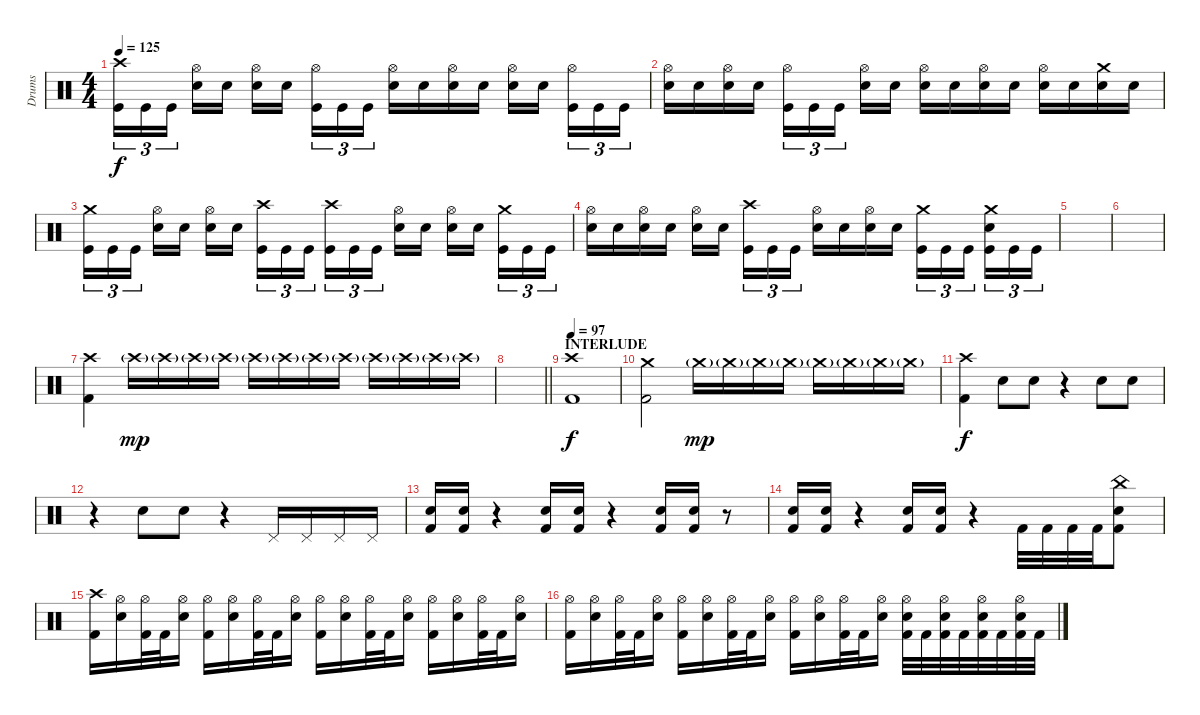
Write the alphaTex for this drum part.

\track ("Drums" "Drums") {instrument percussion}
\staff
\articulation defaults
\ts (4 4)
\tempo 125
\clef neutral
\ks c
("Crash high (hit)" "Kick (hit)").16{tu (3 2) dy f} "Kick (hit)".16{tu (3 2)} "Kick (hit)".16{tu (3 2) beam splitsecondary} ("Hi-Hat (open)" "Electric Snare (hit)").16 "Electric Snare (hit)".16 ("Hi-Hat (open)" "Electric Snare (hit)").16 "Electric Snare (hit)".16{beam splitsecondary} ("Hi-Hat (open)" "Kick (hit)").16{tu (3 2)} "Kick (hit)".16{tu (3 2)} "Kick (hit)".16{tu (3 2)} ("Hi-Hat (open)" "Electric Snare (hit)").16 "Electric Snare (hit)".16 ("Hi-Hat (open)" "Electric Snare (hit)").16 "Electric Snare (hit)".16 ("Hi-Hat (open)" "Electric Snare (hit)").16 "Electric Snare (hit)".16{beam splitsecondary} ("Hi-Hat (open)" "Kick (hit)").16{tu (3 2)} "Kick (hit)".16{tu (3 2)} "Kick (hit)".16{tu (3 2)} |
("Hi-Hat (open)" "Electric Snare (hit)").16 "Electric Snare (hit)".16 ("Hi-Hat (open)" "Electric Snare (hit)").16 "Electric Snare (hit)".16 ("Hi-Hat (open)" "Kick (hit)").16{tu (3 2)} "Kick (hit)".16{tu (3 2)} "Kick (hit)".16{tu (3 2) beam splitsecondary} ("Hi-Hat (open)" "Electric Snare (hit)").16 "Electric Snare (hit)".16 ("Hi-Hat (open)" "Electric Snare (hit)").16 "Electric Snare (hit)".16 ("Hi-Hat (open)" "Electric Snare (hit)").16 "Electric Snare (hit)".16 ("Hi-Hat (open)" "Electric Snare (hit)").16 "Electric Snare (hit)".16 ("Crash medium (hit)" "Electric Snare (hit)").16 "Electric Snare (hit)".16 |
("Crash medium (hit)" "Kick (hit)").16{tu (3 2)} "Kick (hit)".16{tu (3 2)} "Kick (hit)".16{tu (3 2) beam splitsecondary} ("Hi-Hat (open)" "Electric Snare (hit)").16 "Electric Snare (hit)".16 ("Hi-Hat (open)" "Electric Snare (hit)").16 "Electric Snare (hit)".16{beam splitsecondary} ("Crash high (hit)" "Kick (hit)").16{tu (3 2)} "Kick (hit)".16{tu (3 2)} "Kick (hit)".16{tu (3 2)} ("Crash high (hit)" "Kick (hit)").16{tu (3 2)} "Kick (hit)".16{tu (3 2)} "Kick (hit)".16{tu (3 2) beam splitsecondary} ("Hi-Hat (open)" "Electric Snare (hit)").16 "Electric Snare (hit)".16 ("Hi-Hat (open)" "Electric Snare (hit)").16 "Electric Snare (hit)".16{beam splitsecondary} ("Crash medium (hit)" "Kick (hit)").16{tu (3 2)} "Kick (hit)".16{tu (3 2)} "Kick (hit)".16{tu (3 2)} |
("Hi-Hat (open)" "Electric Snare (hit)").16 "Electric Snare (hit)".16 ("Hi-Hat (open)" "Electric Snare (hit)").16 "Electric Snare (hit)".16 ("Hi-Hat (open)" "Electric Snare (hit)").16 "Electric Snare (hit)".16{beam splitsecondary} ("Crash high (hit)" "Kick (hit)").16{tu (3 2)} "Kick (hit)".16{tu (3 2)} "Kick (hit)".16{tu (3 2)} ("Hi-Hat (open)" "Electric Snare (hit)").16 "Electric Snare (hit)".16 ("Hi-Hat (open)" "Electric Snare (hit)").16 "Electric Snare (hit)".16 ("Crash medium (hit)" "Kick (hit)").16{tu (3 2)} "Kick (hit)".16{tu (3 2)} "Kick (hit)".16{tu (3 2) beam splitsecondary} ("Crash medium (hit)" "Electric Snare (hit)" "Kick (hit)").16{tu (3 2)} "Kick (hit)".16{tu (3 2)} "Kick (hit)".16{tu (3 2)} |
|
|
("Crash high (hit)" "Kick (hit) 2").4 "Crash high (hit)"{g}.16{dy mp} "Crash high (hit)"{g}.16 "Crash high (hit)"{g}.16 "Crash high (hit)"{g}.16 "Crash high (hit)"{g}.16 "Crash high (hit)"{g}.16 "Crash high (hit)"{g}.16 "Crash high (hit)"{g}.16 "Crash high (hit)"{g}.16 "Crash high (hit)"{g}.16 "Crash high (hit)"{g}.16 "Crash high (hit)"{g}.16 |
\barLineRight lightlight
|
\section ("" "INTERLUDE")
\tempo 97
("Crash high (hit)" "Kick (hit) 2").1{dy f} |
("Crash medium (hit)" "Kick (hit) 2").2 "Crash medium (hit)"{g}.16{dy mp} "Crash medium (hit)"{g}.16 "Crash medium (hit)"{g}.16 "Crash medium (hit)"{g}.16 "Crash medium (hit)"{g}.16 "Crash medium (hit)"{g}.16 "Crash medium (hit)"{g}.16 "Crash medium (hit)"{g}.16 |
("Crash high (hit)" "Kick (hit) 2").4{dy f} "Electric Snare (hit)".8 "Electric Snare (hit)".8 r.4 "Electric Snare (hit)".8 "Electric Snare (hit)".8 |
r.4 "Electric Snare (hit)".8 "Electric Snare (hit)".8 r.4 "Pedal Hi-Hat (hit)".16 "Pedal Hi-Hat (hit)".16 "Pedal Hi-Hat (hit)".16 "Pedal Hi-Hat (hit)".16 |
("Electric Snare (hit)" "Kick (hit) 2").16 ("Electric Snare (hit)" "Kick (hit) 2").16 r.4 ("Electric Snare (hit)" "Kick (hit) 2").16 ("Electric Snare (hit)" "Kick (hit) 2").16 r.4 ("Electric Snare (hit)" "Kick (hit) 2").16 ("Electric Snare (hit)" "Kick (hit) 2").16 r.8 |
("Electric Snare (hit)" "Kick (hit) 2").16 ("Electric Snare (hit)" "Kick (hit) 2").16 r.4 ("Electric Snare (hit)" "Kick (hit) 2").16 ("Electric Snare (hit)" "Kick (hit) 2").16 r.4 "Kick (hit) 2".32 "Kick (hit) 2".32 "Kick (hit) 2".32 "Kick (hit) 2".32 ("China (hit)" "Electric Snare (hit)" "Kick (hit) 2").8 |
("Crash high (hit)" "Kick (hit) 2").16 ("Hi-Hat (open)" "Electric Snare (hit)").16 ("Hi-Hat (open)" "Kick (hit) 2").32 "Kick (hit) 2".32 ("Hi-Hat (open)" "Electric Snare (hit)").16 ("Hi-Hat (open)" "Kick (hit) 2").16 ("Hi-Hat (open)" "Electric Snare (hit)").16 ("Hi-Hat (open)" "Kick (hit) 2").32 "Kick (hit) 2".32 ("Hi-Hat (open)" "Electric Snare (hit)").16 ("Hi-Hat (open)" "Kick (hit) 2").16 ("Hi-Hat (open)" "Electric Snare (hit)").16 ("Hi-Hat (open)" "Kick (hit) 2").32 "Kick (hit) 2".32 ("Hi-Hat (open)" "Electric Snare (hit)").16 ("Hi-Hat (open)" "Kick (hit) 2").16 ("Hi-Hat (open)" "Electric Snare (hit)").16 ("Hi-Hat (open)" "Kick (hit) 2").32 "Kick (hit) 2".32 ("Hi-Hat (open)" "Electric Snare (hit)").16 |
("Hi-Hat (open)" "Kick (hit) 2").16 ("Hi-Hat (open)" "Electric Snare (hit)").16 ("Hi-Hat (open)" "Kick (hit) 2").32 "Kick (hit) 2".32 ("Hi-Hat (open)" "Electric Snare (hit)").16 ("Hi-Hat (open)" "Kick (hit) 2").16 ("Hi-Hat (open)" "Electric Snare (hit)").16 ("Hi-Hat (open)" "Kick (hit) 2").32 "Kick (hit) 2".32 ("Hi-Hat (open)" "Electric Snare (hit)").16 ("Hi-Hat (open)" "Kick (hit) 2").16 ("Hi-Hat (open)" "Electric Snare (hit)").16 ("Hi-Hat (open)" "Kick (hit) 2").32 "Kick (hit) 2".32 ("Hi-Hat (open)" "Electric Snare (hit)").16 ("Hi-Hat (open)" "Electric Snare (hit)" "Kick (hit) 2").32 "Kick (hit) 2".32 ("Hi-Hat (open)" "Electric Snare (hit)" "Kick (hit) 2").32 "Kick (hit) 2".32 ("Hi-Hat (open)" "Electric Snare (hit)" "Kick (hit) 2").32 "Kick (hit) 2".32 ("Hi-Hat (open)" "Electric Snare (hit)" "Kick (hit) 2").32 "Kick (hit) 2".32
